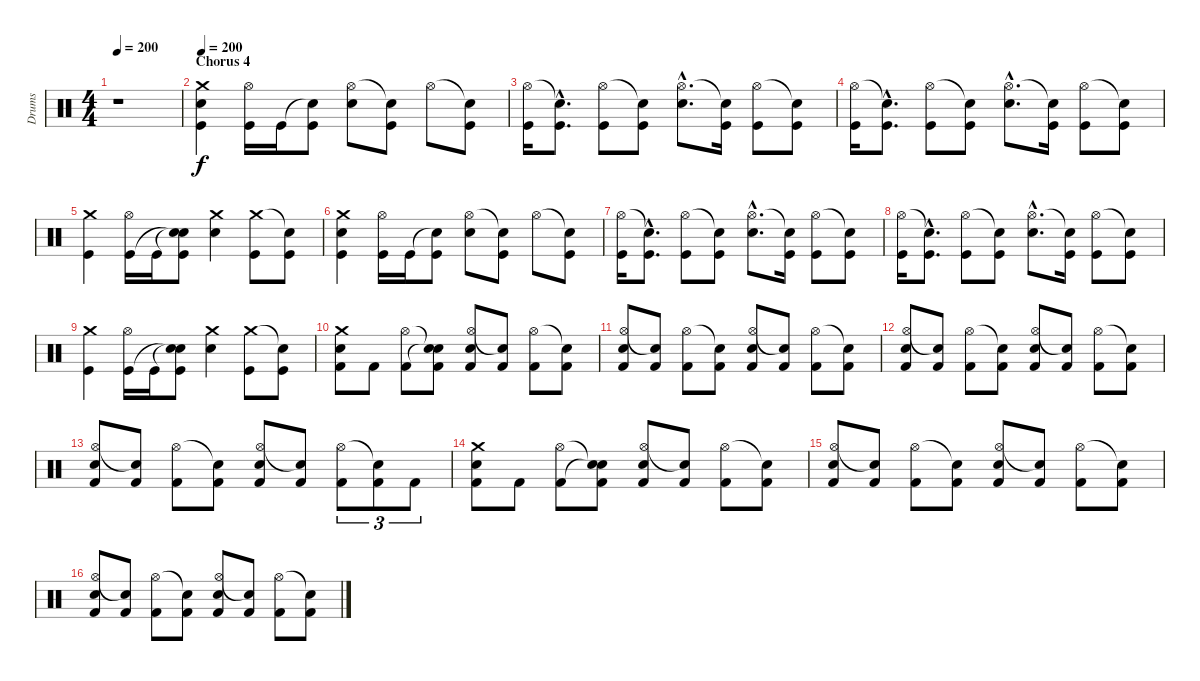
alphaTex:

\track ("Drums" "Drums") {instrument percussion}
\staff {score}
\articulation defaults
\ts (4 4)
\tempo 200
\clef neutral
\ks c
r.1{dy f} |
\section ("" "Chorus 4")
\tempo 200
("Crash medium (hit)" "Electric Snare (hit)" "Kick (hit)").4 ("Hi-Hat (open)" "Kick (hit)").16 "Kick (hit)".16 ("Snare (hit)"{t} "Kick (hit)").8 ("Hi-Hat (open)" "Electric Snare (hit)").8 ("Snare (hit)"{t} "Kick (hit)").8 "Hi-Hat (open)".8 ("Snare (hit)"{t} "Kick (hit)").8 |
("Hi-Hat (open)" "Kick (hit)").16 ("Snare (hit)"{hac t} "Kick (hit)"{hac}).8{d} ("Hi-Hat (open)" "Kick (hit)").8 ("Snare (hit)"{t} "Kick (hit)").8 ("Hi-Hat (open)"{hac} "Electric Snare (hit)"{hac}).8{d} ("Snare (hit)"{t} "Kick (hit)").16 ("Hi-Hat (open)" "Kick (hit)").8 ("Snare (hit)"{t} "Kick (hit)").8 |
("Hi-Hat (open)" "Kick (hit)").16 ("Snare (hit)"{hac t} "Kick (hit)"{hac}).8{d} ("Hi-Hat (open)" "Kick (hit)").8 ("Snare (hit)"{t} "Kick (hit)").8 ("Hi-Hat (open)"{hac} "Electric Snare (hit)"{hac}).8{d} ("Snare (hit)"{t} "Kick (hit)").16 ("Hi-Hat (open)" "Kick (hit)").8 ("Snare (hit)"{t} "Kick (hit)").8 |
("Crash medium (hit)" "Kick (hit)").4 ("Hi-Hat (open)" "Kick (hit)").16 "Kick (hit)".16 ("Snare (hit)"{t} "Snare (hit)"{t} "Kick (hit)").8 ("Crash medium (hit)" "Electric Snare (hit)").4 ("Crash medium (hit)" "Kick (hit)").8 ("Snare (hit)"{t} "Kick (hit)").8 |
("Crash medium (hit)" "Electric Snare (hit)" "Kick (hit)").4 ("Hi-Hat (open)" "Kick (hit)").16 "Kick (hit)".16 ("Snare (hit)"{t} "Kick (hit)").8 ("Hi-Hat (open)" "Electric Snare (hit)").8 ("Snare (hit)"{t} "Kick (hit)").8 "Hi-Hat (open)".8 ("Snare (hit)"{t} "Kick (hit)").8 |
("Hi-Hat (open)" "Kick (hit)").16 ("Snare (hit)"{hac t} "Kick (hit)"{hac}).8{d} ("Hi-Hat (open)" "Kick (hit)").8 ("Snare (hit)"{t} "Kick (hit)").8 ("Hi-Hat (open)"{hac} "Electric Snare (hit)"{hac}).8{d} ("Snare (hit)"{t} "Kick (hit)").16 ("Hi-Hat (open)" "Kick (hit)").8 ("Snare (hit)"{t} "Kick (hit)").8 |
("Hi-Hat (open)" "Kick (hit)").16 ("Snare (hit)"{hac t} "Kick (hit)"{hac}).8{d} ("Hi-Hat (open)" "Kick (hit)").8 ("Snare (hit)"{t} "Kick (hit)").8 ("Hi-Hat (open)"{hac} "Electric Snare (hit)"{hac}).8{d} ("Snare (hit)"{t} "Kick (hit)").16 ("Hi-Hat (open)" "Kick (hit)").8 ("Snare (hit)"{t} "Kick (hit)").8 |
("Crash medium (hit)" "Kick (hit)").4 ("Hi-Hat (open)" "Kick (hit)").16 "Kick (hit)".16 ("Snare (hit)"{t} "Snare (hit)"{t} "Kick (hit)").8 ("Crash medium (hit)" "Electric Snare (hit)").4 ("Crash medium (hit)" "Kick (hit)").8 ("Snare (hit)"{t} "Kick (hit)").8 |
("Crash medium (hit)" "Electric Snare (hit)" "Kick (hit) 2").8 "Kick (hit) 2".8 ("Hi-Hat (open)" "Kick (hit) 2").8 ("Snare (hit)"{t} "Snare (hit)"{t} "Kick (hit) 2").8 ("Hi-Hat (open)" "Electric Snare (hit)" "Kick (hit) 2").8 ("Snare (hit)"{t} "Kick (hit) 2").8 ("Hi-Hat (open)" "Kick (hit) 2").8 ("Snare (hit)"{t} "Kick (hit) 2").8 |
("Hi-Hat (open)" "Electric Snare (hit)" "Kick (hit) 2").8 ("Snare (hit)"{t} "Kick (hit) 2").8 ("Hi-Hat (open)" "Kick (hit) 2").8 ("Snare (hit)"{t} "Kick (hit) 2").8 ("Hi-Hat (open)" "Electric Snare (hit)" "Kick (hit) 2").8 ("Snare (hit)"{t} "Kick (hit) 2").8 ("Hi-Hat (open)" "Kick (hit) 2").8 ("Snare (hit)"{t} "Kick (hit) 2").8 |
("Hi-Hat (open)" "Electric Snare (hit)" "Kick (hit) 2").8 ("Snare (hit)"{t} "Kick (hit) 2").8 ("Hi-Hat (open)" "Kick (hit) 2").8 ("Snare (hit)"{t} "Kick (hit) 2").8 ("Hi-Hat (open)" "Electric Snare (hit)" "Kick (hit) 2").8 ("Snare (hit)"{t} "Kick (hit) 2").8 ("Hi-Hat (open)" "Kick (hit) 2").8 ("Snare (hit)"{t} "Kick (hit) 2").8 |
("Hi-Hat (open)" "Electric Snare (hit)" "Kick (hit) 2").8 ("Snare (hit)"{t} "Kick (hit) 2").8 ("Hi-Hat (open)" "Kick (hit) 2").8 ("Snare (hit)"{t} "Kick (hit) 2").8 ("Hi-Hat (open)" "Electric Snare (hit)" "Kick (hit) 2").8 ("Snare (hit)"{t} "Kick (hit) 2").8 ("Hi-Hat (open)" "Kick (hit) 2").8{tu (3 2)} ("Snare (hit)"{t} "Kick (hit) 2").8{tu (3 2)} "Kick (hit) 2".8{tu (3 2)} |
("Crash medium (hit)" "Electric Snare (hit)" "Kick (hit) 2").8 "Kick (hit) 2".8 ("Hi-Hat (open)" "Kick (hit) 2").8 ("Snare (hit)"{t} "Snare (hit)"{t} "Kick (hit) 2").8 ("Hi-Hat (open)" "Electric Snare (hit)" "Kick (hit) 2").8 ("Snare (hit)"{t} "Kick (hit) 2").8 ("Hi-Hat (open)" "Kick (hit) 2").8 ("Snare (hit)"{t} "Kick (hit) 2").8 |
("Hi-Hat (open)" "Electric Snare (hit)" "Kick (hit) 2").8 ("Snare (hit)"{t} "Kick (hit) 2").8 ("Hi-Hat (open)" "Kick (hit) 2").8 ("Snare (hit)"{t} "Kick (hit) 2").8 ("Hi-Hat (open)" "Electric Snare (hit)" "Kick (hit) 2").8 ("Snare (hit)"{t} "Kick (hit) 2").8 ("Hi-Hat (open)" "Kick (hit) 2").8 ("Snare (hit)"{t} "Kick (hit) 2").8 |
("Hi-Hat (open)" "Electric Snare (hit)" "Kick (hit) 2").8 ("Snare (hit)"{t} "Kick (hit) 2").8 ("Hi-Hat (open)" "Kick (hit) 2").8 ("Snare (hit)"{t} "Kick (hit) 2").8 ("Hi-Hat (open)" "Electric Snare (hit)" "Kick (hit) 2").8 ("Snare (hit)"{t} "Kick (hit) 2").8 ("Hi-Hat (open)" "Kick (hit) 2").8 ("Snare (hit)"{t} "Kick (hit) 2").8
